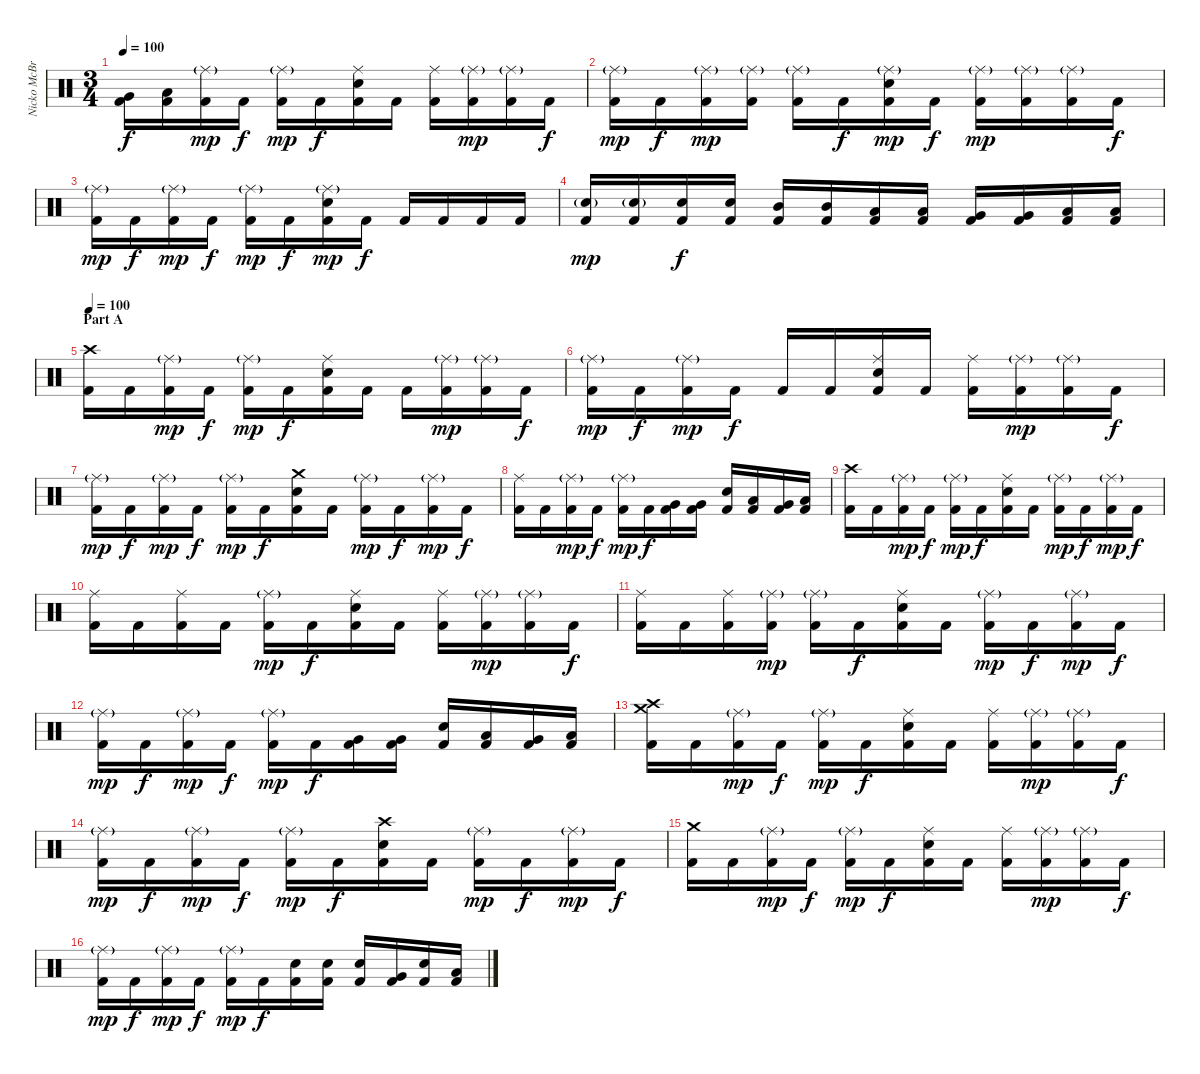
\track ("Nicko McBrain" "Nicko McBr") {instrument percussion}
\staff {score}
\articulation defaults
\ts (3 4)
\tempo 100
\clef neutral
\ks c
("Very Low Tom (hit)" "Kick (hit) 2").16{dy f} ("Low Floor Tom (hit)" "Kick (hit) 2").16 ("Ride (middle)"{g} "Kick (hit) 2").16{dy mp} "Kick (hit) 2".16{dy f} ("Ride (middle)"{g} "Kick (hit) 2").16{dy mp} "Kick (hit) 2".16{dy f} ("Ride (middle)" "Electric Snare (hit)" "Kick (hit) 2").16 "Kick (hit) 2".16 ("Ride (middle)" "Kick (hit) 2").16 ("Ride (middle)"{g} "Kick (hit) 2").16{dy mp} ("Ride (middle)"{g} "Kick (hit) 2").16 "Kick (hit) 2".16{dy f} |
("Ride (middle)"{g} "Kick (hit) 2").16{dy mp} "Kick (hit) 2".16{dy f} ("Ride (middle)"{g} "Kick (hit) 2").16{dy mp} ("Ride (middle)"{g} "Kick (hit) 2").16 ("Ride (middle)"{g} "Kick (hit) 2").16 "Kick (hit) 2".16{dy f} ("Ride (middle)"{g} "Electric Snare (hit)" "Kick (hit) 2").16{dy mp} "Kick (hit) 2".16{dy f} ("Ride (middle)"{g} "Kick (hit) 2").16{dy mp} ("Ride (middle)"{g} "Kick (hit) 2").16 ("Ride (middle)"{g} "Kick (hit) 2").16 "Kick (hit) 2".16{dy f} |
("Ride (middle)"{g} "Kick (hit) 2").16{dy mp} "Kick (hit) 2".16{dy f} ("Ride (middle)"{g} "Kick (hit) 2").16{dy mp} "Kick (hit) 2".16{dy f} ("Ride (middle)"{g} "Kick (hit) 2").16{dy mp} "Kick (hit) 2".16{dy f} ("Ride (middle)"{g} "Electric Snare (hit)" "Kick (hit) 2").16{dy mp} "Kick (hit) 2".16{dy f} "Kick (hit) 2".16 "Kick (hit) 2".16 "Kick (hit) 2".16 "Kick (hit) 2".16 |
("Electric Snare (hit)"{g} "Kick (hit) 2").16{dy mp} ("Electric Snare (hit)"{g} "Kick (hit) 2").16 ("Electric Snare (hit)" "Kick (hit) 2").16{dy f} ("Electric Snare (hit)" "Kick (hit) 2").16 ("Mid Tom (hit)" "Kick (hit) 2").16 ("Mid Tom (hit)" "Kick (hit) 2").16 ("Low Tom (hit)" "Kick (hit) 2").16 ("Low Tom (hit)" "Kick (hit) 2").16 ("Very Low Tom (hit)" "Kick (hit) 2").16 ("Very Low Tom (hit)" "Kick (hit) 2").16 ("Low Floor Tom (hit)" "Kick (hit) 2").16 ("Low Floor Tom (hit)" "Kick (hit) 2").16 |
\section ("" "Part A")
\tempo 100
("Crash high (hit)" "Kick (hit) 2").16 "Kick (hit) 2".16 ("Ride (middle)"{g} "Kick (hit) 2").16{dy mp} "Kick (hit) 2".16{dy f} ("Ride (middle)"{g} "Kick (hit) 2").16{dy mp} "Kick (hit) 2".16{dy f} ("Ride (middle)" "Electric Snare (hit)" "Kick (hit) 2").16 "Kick (hit) 2".16 "Kick (hit) 2".16 ("Ride (middle)"{g} "Kick (hit) 2").16{dy mp} ("Ride (middle)"{g} "Kick (hit) 2").16 "Kick (hit) 2".16{dy f} |
("Ride (middle)"{g} "Kick (hit) 2").16{dy mp} "Kick (hit) 2".16{dy f} ("Ride (middle)"{g} "Kick (hit) 2").16{dy mp} "Kick (hit) 2".16{dy f} "Kick (hit) 2".16 "Kick (hit) 2".16 ("Ride (middle)" "Electric Snare (hit)" "Kick (hit) 2").16 "Kick (hit) 2".16 ("Ride (middle)" "Kick (hit) 2").16 ("Ride (middle)"{g} "Kick (hit) 2").16{dy mp} ("Ride (middle)"{g} "Kick (hit) 2").16 "Kick (hit) 2".16{dy f} |
("Ride (middle)"{g} "Kick (hit) 2").16{dy mp} "Kick (hit) 2".16{dy f} ("Ride (middle)"{g} "Kick (hit) 2").16{dy mp} "Kick (hit) 2".16{dy f} ("Ride (middle)"{g} "Kick (hit) 2").16{dy mp} "Kick (hit) 2".16{dy f} ("Crash medium (hit)" "Electric Snare (hit)" "Kick (hit) 2").16 "Kick (hit) 2".16 ("Ride (middle)"{g} "Kick (hit) 2").16{dy mp} "Kick (hit) 2".16{dy f} ("Ride (middle)"{g} "Kick (hit) 2").16{dy mp} "Kick (hit) 2".16{dy f} |
("Ride (middle)" "Kick (hit) 2").16 "Kick (hit) 2".16 ("Ride (middle)"{g} "Kick (hit) 2").16{dy mp} "Kick (hit) 2".16{dy f} ("Ride (middle)"{g} "Kick (hit) 2").16{dy mp} "Kick (hit) 2".16{dy f} ("Very Low Tom (hit)" "Kick (hit) 2").16 ("Very Low Tom (hit)" "Kick (hit) 2").16 ("Electric Snare (hit)" "Kick (hit) 2").16 ("Low Tom (hit)" "Kick (hit) 2").16 ("Very Low Tom (hit)" "Kick (hit) 2").16 ("Low Floor Tom (hit)" "Kick (hit) 2").16 |
("Crash high (hit)" "Kick (hit) 2").16 "Kick (hit) 2".16 ("Ride (middle)"{g} "Kick (hit) 2").16{dy mp} "Kick (hit) 2".16{dy f} ("Ride (middle)"{g} "Kick (hit) 2").16{dy mp} "Kick (hit) 2".16{dy f} ("Ride (middle)" "Electric Snare (hit)" "Kick (hit) 2").16 "Kick (hit) 2".16 ("Ride (middle)"{g} "Kick (hit) 2").16{dy mp} "Kick (hit) 2".16{dy f} ("Ride (middle)"{g} "Kick (hit) 2").16{dy mp} "Kick (hit) 2".16{dy f} |
("Ride (middle)" "Kick (hit) 2").16 "Kick (hit) 2".16 ("Ride (middle)" "Kick (hit) 2").16 "Kick (hit) 2".16 ("Ride (middle)"{g} "Kick (hit) 2").16{dy mp} "Kick (hit) 2".16{dy f} ("Ride (middle)" "Electric Snare (hit)" "Kick (hit) 2").16 "Kick (hit) 2".16 ("Ride (middle)" "Kick (hit) 2").16 ("Ride (middle)"{g} "Kick (hit) 2").16{dy mp} ("Ride (middle)"{g} "Kick (hit) 2").16 "Kick (hit) 2".16{dy f} |
("Ride (middle)" "Kick (hit) 2").16 "Kick (hit) 2".16 ("Ride (middle)" "Kick (hit) 2").16 ("Ride (middle)"{g} "Kick (hit) 2").16{dy mp} ("Ride (middle)"{g} "Kick (hit) 2").16 "Kick (hit) 2".16{dy f} ("Ride (middle)" "Electric Snare (hit)" "Kick (hit) 2").16 "Kick (hit) 2".16 ("Ride (middle)"{g} "Kick (hit) 2").16{dy mp} "Kick (hit) 2".16{dy f} ("Ride (middle)"{g} "Kick (hit) 2").16{dy mp} "Kick (hit) 2".16{dy f} |
("Ride (middle)"{g} "Kick (hit) 2").16{dy mp} "Kick (hit) 2".16{dy f} ("Ride (middle)"{g} "Kick (hit) 2").16{dy mp} "Kick (hit) 2".16{dy f} ("Ride (middle)"{g} "Kick (hit) 2").16{dy mp} "Kick (hit) 2".16{dy f} ("Very Low Tom (hit)" "Kick (hit) 2").16 ("Very Low Tom (hit)" "Kick (hit) 2").16 ("Electric Snare (hit)" "Kick (hit) 2").16 ("Low Tom (hit)" "Kick (hit) 2").16 ("Very Low Tom (hit)" "Kick (hit) 2").16 ("Low Floor Tom (hit)" "Kick (hit) 2").16 |
("Crash medium (hit)" "Crash high (hit)" "Kick (hit) 2").16 "Kick (hit) 2".16 ("Ride (middle)"{g} "Kick (hit) 2").16{dy mp} "Kick (hit) 2".16{dy f} ("Ride (middle)"{g} "Kick (hit) 2").16{dy mp} "Kick (hit) 2".16{dy f} ("Ride (middle)" "Electric Snare (hit)" "Kick (hit) 2").16 "Kick (hit) 2".16 ("Ride (middle)" "Kick (hit) 2").16 ("Ride (middle)"{g} "Kick (hit) 2").16{dy mp} ("Ride (middle)"{g} "Kick (hit) 2").16 "Kick (hit) 2".16{dy f} |
("Ride (middle)"{g} "Kick (hit) 2").16{dy mp} "Kick (hit) 2".16{dy f} ("Ride (middle)"{g} "Kick (hit) 2").16{dy mp} "Kick (hit) 2".16{dy f} ("Ride (middle)"{g} "Kick (hit) 2").16{dy mp} "Kick (hit) 2".16{dy f} ("Crash high (hit)" "Electric Snare (hit)" "Kick (hit) 2").16 "Kick (hit) 2".16 ("Ride (middle)"{g} "Kick (hit) 2").16{dy mp} "Kick (hit) 2".16{dy f} ("Ride (middle)"{g} "Kick (hit) 2").16{dy mp} "Kick (hit) 2".16{dy f} |
("Crash medium (hit)" "Kick (hit) 2").16 "Kick (hit) 2".16 ("Ride (middle)"{g} "Kick (hit) 2").16{dy mp} "Kick (hit) 2".16{dy f} ("Ride (middle)"{g} "Kick (hit) 2").16{dy mp} "Kick (hit) 2".16{dy f} ("Ride (middle)" "Electric Snare (hit)" "Kick (hit) 2").16 "Kick (hit) 2".16 ("Ride (middle)" "Kick (hit) 2").16 ("Ride (middle)"{g} "Kick (hit) 2").16{dy mp} ("Ride (middle)"{g} "Kick (hit) 2").16 "Kick (hit) 2".16{dy f} |
("Ride (middle)"{g} "Kick (hit) 2").16{dy mp} "Kick (hit) 2".16{dy f} ("Ride (middle)"{g} "Kick (hit) 2").16{dy mp} "Kick (hit) 2".16{dy f} ("Ride (middle)"{g} "Kick (hit) 2").16{dy mp} "Kick (hit) 2".16{dy f} ("Electric Snare (hit)" "Kick (hit) 2").16 ("Electric Snare (hit)" "Kick (hit) 2").16 ("Electric Snare (hit)" "Kick (hit) 2").16 ("Very Low Tom (hit)" "Kick (hit) 2").16 ("Electric Snare (hit)" "Kick (hit) 2").16 ("Low Floor Tom (hit)" "Kick (hit) 2").16
